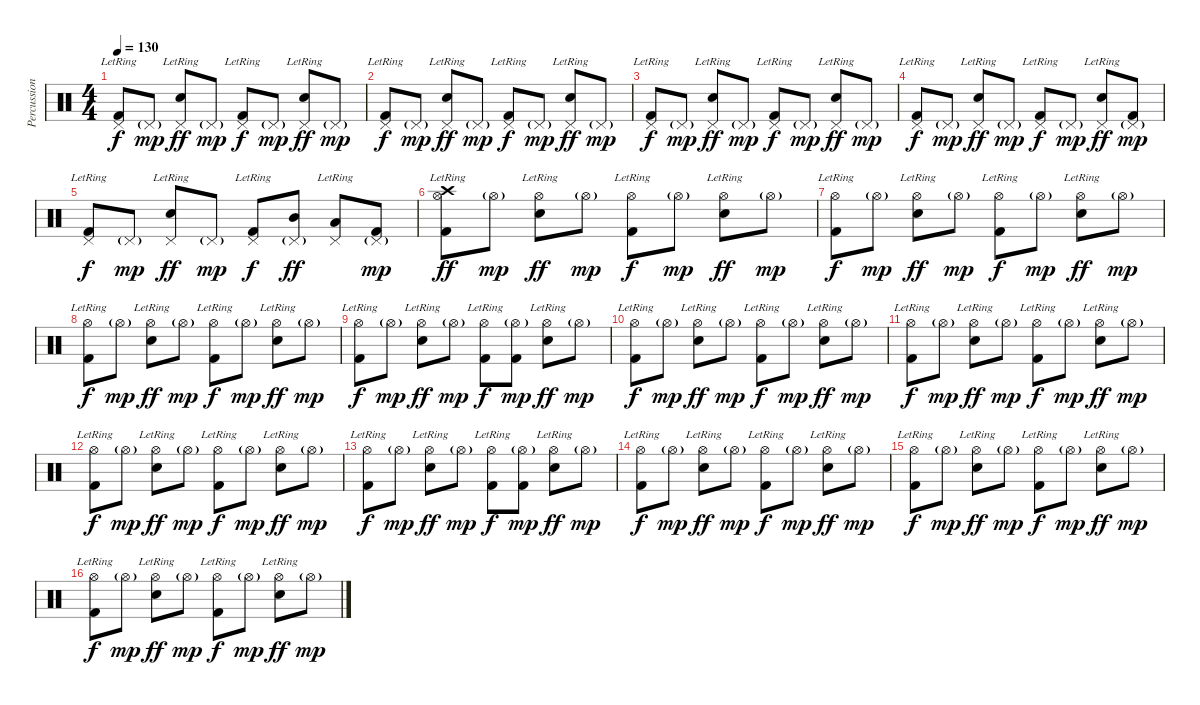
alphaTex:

\track ("Percussion" "Percussion") {instrument percussion}
\staff {score}
\articulation defaults
\ts (4 4)
\tempo 130
\clef neutral
\ks c
("Pedal Hi-Hat (hit)"{lr} "Kick (hit) 2").8{dy f} "Pedal Hi-Hat (hit)"{g}.8{dy mp} ("Pedal Hi-Hat (hit)"{lr} "Snare (hit) 2").8{dy ff} "Pedal Hi-Hat (hit)"{g}.8{dy mp} ("Pedal Hi-Hat (hit)"{lr} "Kick (hit) 2").8{dy f} "Pedal Hi-Hat (hit)"{g}.8{dy mp} ("Pedal Hi-Hat (hit)"{lr} "Snare (hit) 2").8{dy ff} "Pedal Hi-Hat (hit)"{g}.8{dy mp} |
("Pedal Hi-Hat (hit)"{lr} "Kick (hit) 2").8{dy f} "Pedal Hi-Hat (hit)"{g}.8{dy mp} ("Pedal Hi-Hat (hit)"{lr} "Snare (hit) 2").8{dy ff} "Pedal Hi-Hat (hit)"{g}.8{dy mp} ("Pedal Hi-Hat (hit)"{lr} "Kick (hit) 2").8{dy f} "Pedal Hi-Hat (hit)"{g}.8{dy mp} ("Pedal Hi-Hat (hit)"{lr} "Snare (hit) 2").8{dy ff} "Pedal Hi-Hat (hit)"{g}.8{dy mp} |
("Pedal Hi-Hat (hit)"{lr} "Kick (hit) 2").8{dy f} "Pedal Hi-Hat (hit)"{g}.8{dy mp} ("Pedal Hi-Hat (hit)"{lr} "Snare (hit) 2").8{dy ff} "Pedal Hi-Hat (hit)"{g}.8{dy mp} ("Pedal Hi-Hat (hit)"{lr} "Kick (hit) 2").8{dy f} "Pedal Hi-Hat (hit)"{g}.8{dy mp} ("Pedal Hi-Hat (hit)"{lr} "Snare (hit) 2").8{dy ff} "Pedal Hi-Hat (hit)"{g}.8{dy mp} |
("Pedal Hi-Hat (hit)"{lr} "Kick (hit) 2").8{dy f} "Pedal Hi-Hat (hit)"{g}.8{dy mp} ("Pedal Hi-Hat (hit)"{lr} "Snare (hit) 2").8{dy ff} "Pedal Hi-Hat (hit)"{g}.8{dy mp} ("Pedal Hi-Hat (hit)"{lr} "Kick (hit) 2").8{dy f} "Pedal Hi-Hat (hit)"{g}.8{dy mp} ("Pedal Hi-Hat (hit)"{lr} "Snare (hit) 2").8{dy ff} ("Pedal Hi-Hat (hit)"{g} "Kick (hit) 2").8{dy mp} |
("Pedal Hi-Hat (hit)"{lr} "Kick (hit) 2").8{dy f} "Pedal Hi-Hat (hit)"{g}.8{dy mp} ("Pedal Hi-Hat (hit)"{lr} "Snare (hit) 2").8{dy ff} "Pedal Hi-Hat (hit)"{g}.8{dy mp} ("Pedal Hi-Hat (hit)"{lr} "Kick (hit) 2").8{dy f} ("Pedal Hi-Hat (hit)"{g} "Mid Tom (hit)").8{dy ff} ("Pedal Hi-Hat (hit)"{lr} "Low Tom (hit)").8 ("Pedal Hi-Hat (hit)"{g} "Kick (hit) 2").8{dy mp} |
("Hi-Hat (open)"{lr} "Crash high (hit)" "Kick (hit) 2").8{dy ff} "Hi-Hat (open)"{g}.8{dy mp} ("Hi-Hat (open)"{lr} "Snare (hit) 2").8{dy ff} "Hi-Hat (open)"{g}.8{dy mp} ("Hi-Hat (open)"{lr} "Kick (hit) 2").8{dy f} "Hi-Hat (open)"{g}.8{dy mp} ("Hi-Hat (open)"{lr} "Snare (hit) 2").8{dy ff} "Hi-Hat (open)"{g}.8{dy mp} |
("Hi-Hat (open)"{lr} "Kick (hit) 2").8{dy f} "Hi-Hat (open)"{g}.8{dy mp} ("Hi-Hat (open)"{lr} "Snare (hit) 2").8{dy ff} "Hi-Hat (open)"{g}.8{dy mp} ("Hi-Hat (open)"{lr} "Kick (hit) 2").8{dy f} "Hi-Hat (open)"{g}.8{dy mp} ("Hi-Hat (open)"{lr} "Snare (hit) 2").8{dy ff} "Hi-Hat (open)"{g}.8{dy mp} |
("Hi-Hat (open)"{lr} "Kick (hit) 2").8{dy f} "Hi-Hat (open)"{g}.8{dy mp} ("Hi-Hat (open)"{lr} "Snare (hit) 2").8{dy ff} "Hi-Hat (open)"{g}.8{dy mp} ("Hi-Hat (open)"{lr} "Kick (hit) 2").8{dy f} "Hi-Hat (open)"{g}.8{dy mp} ("Hi-Hat (open)"{lr} "Snare (hit) 2").8{dy ff} "Hi-Hat (open)"{g}.8{dy mp} |
("Hi-Hat (open)"{lr} "Kick (hit) 2").8{dy f} "Hi-Hat (open)"{g}.8{dy mp} ("Hi-Hat (open)"{lr} "Snare (hit) 2").8{dy ff} "Hi-Hat (open)"{g}.8{dy mp} ("Hi-Hat (open)"{lr} "Kick (hit) 2").8{dy f} ("Hi-Hat (open)"{g} "Kick (hit) 2").8{dy mp} ("Hi-Hat (open)"{lr} "Snare (hit) 2").8{dy ff} "Hi-Hat (open)"{g}.8{dy mp} |
("Hi-Hat (open)"{lr} "Kick (hit) 2").8{dy f} "Hi-Hat (open)"{g}.8{dy mp} ("Hi-Hat (open)"{lr} "Snare (hit) 2").8{dy ff} "Hi-Hat (open)"{g}.8{dy mp} ("Hi-Hat (open)"{lr} "Kick (hit) 2").8{dy f} "Hi-Hat (open)"{g}.8{dy mp} ("Hi-Hat (open)"{lr} "Snare (hit) 2").8{dy ff} "Hi-Hat (open)"{g}.8{dy mp} |
("Hi-Hat (open)"{lr} "Kick (hit) 2").8{dy f} "Hi-Hat (open)"{g}.8{dy mp} ("Hi-Hat (open)"{lr} "Snare (hit) 2").8{dy ff} "Hi-Hat (open)"{g}.8{dy mp} ("Hi-Hat (open)"{lr} "Kick (hit) 2").8{dy f} "Hi-Hat (open)"{g}.8{dy mp} ("Hi-Hat (open)"{lr} "Snare (hit) 2").8{dy ff} "Hi-Hat (open)"{g}.8{dy mp} |
("Hi-Hat (open)"{lr} "Kick (hit) 2").8{dy f} "Hi-Hat (open)"{g}.8{dy mp} ("Hi-Hat (open)"{lr} "Snare (hit) 2").8{dy ff} "Hi-Hat (open)"{g}.8{dy mp} ("Hi-Hat (open)"{lr} "Kick (hit) 2").8{dy f} "Hi-Hat (open)"{g}.8{dy mp} ("Hi-Hat (open)"{lr} "Snare (hit) 2").8{dy ff} "Hi-Hat (open)"{g}.8{dy mp} |
("Hi-Hat (open)"{lr} "Kick (hit) 2").8{dy f} "Hi-Hat (open)"{g}.8{dy mp} ("Hi-Hat (open)"{lr} "Snare (hit) 2").8{dy ff} "Hi-Hat (open)"{g}.8{dy mp} ("Hi-Hat (open)"{lr} "Kick (hit) 2").8{dy f} ("Hi-Hat (open)"{g} "Kick (hit) 2").8{dy mp} ("Hi-Hat (open)"{lr} "Snare (hit) 2").8{dy ff} "Hi-Hat (open)"{g}.8{dy mp} |
("Hi-Hat (open)"{lr} "Kick (hit) 2").8{dy f} "Hi-Hat (open)"{g}.8{dy mp} ("Hi-Hat (open)"{lr} "Snare (hit) 2").8{dy ff} "Hi-Hat (open)"{g}.8{dy mp} ("Hi-Hat (open)"{lr} "Kick (hit) 2").8{dy f} "Hi-Hat (open)"{g}.8{dy mp} ("Hi-Hat (open)"{lr} "Snare (hit) 2").8{dy ff} "Hi-Hat (open)"{g}.8{dy mp} |
("Hi-Hat (open)"{lr} "Kick (hit) 2").8{dy f} "Hi-Hat (open)"{g}.8{dy mp} ("Hi-Hat (open)"{lr} "Snare (hit) 2").8{dy ff} "Hi-Hat (open)"{g}.8{dy mp} ("Hi-Hat (open)"{lr} "Kick (hit) 2").8{dy f} "Hi-Hat (open)"{g}.8{dy mp} ("Hi-Hat (open)"{lr} "Snare (hit) 2").8{dy ff} "Hi-Hat (open)"{g}.8{dy mp} |
("Hi-Hat (open)"{lr} "Kick (hit) 2").8{dy f} "Hi-Hat (open)"{g}.8{dy mp} ("Hi-Hat (open)"{lr} "Snare (hit) 2").8{dy ff} "Hi-Hat (open)"{g}.8{dy mp} ("Hi-Hat (open)"{lr} "Kick (hit) 2").8{dy f} "Hi-Hat (open)"{g}.8{dy mp} ("Hi-Hat (open)"{lr} "Snare (hit) 2").8{dy ff} "Hi-Hat (open)"{g}.8{dy mp}
